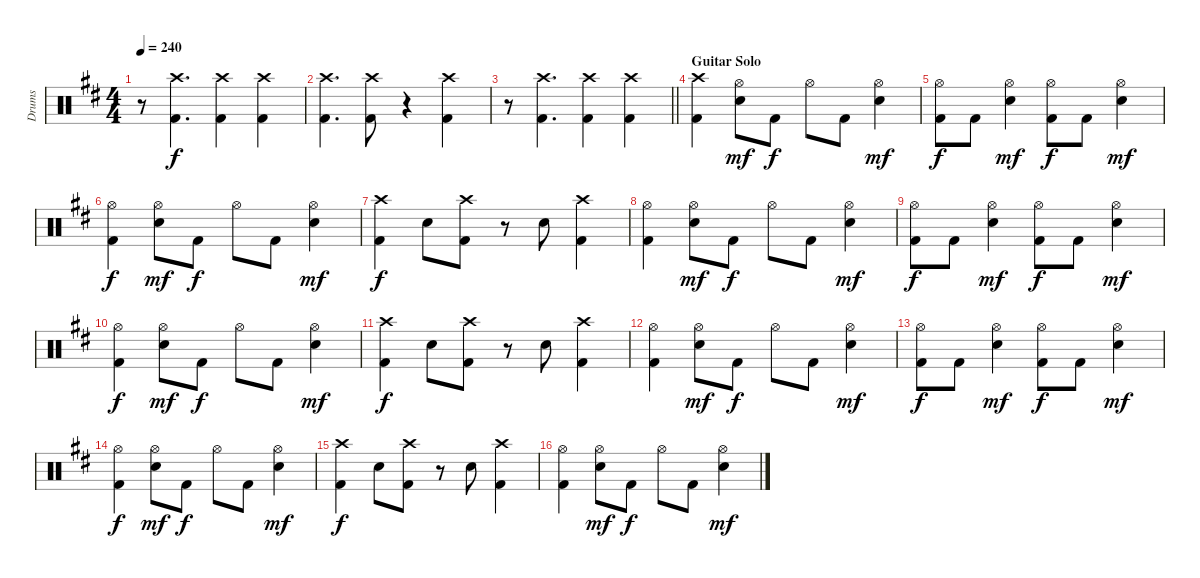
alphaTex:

\track ("Drums" "Drums") {instrument percussion}
\staff {score}
\articulation defaults
\ts (4 4)
\tempo 240
\clef neutral
\ks d
r.8{dy f} ("Crash high (hit)" "Kick (hit) 2").4{d} ("Crash high (hit)" "Kick (hit) 2").4 ("Crash high (hit)" "Kick (hit) 2").4 |
("Crash high (hit)" "Kick (hit) 2").4{d} ("Crash high (hit)" "Kick (hit) 2").8 r.4 ("Crash high (hit)" "Kick (hit) 2").4 |
\barLineRight lightlight
r.8 ("Crash high (hit)" "Kick (hit) 2").4{d} ("Crash high (hit)" "Kick (hit) 2").4 ("Crash high (hit)" "Kick (hit) 2").4 |
\section ("" "Guitar Solo")
("Crash high (hit)" "Kick (hit) 2").4 ("Hi-Hat (open)" "Electric Snare (hit)").8{dy mf} "Kick (hit) 2".8{dy f} "Hi-Hat (open)".8 "Kick (hit) 2".8 ("Hi-Hat (open)" "Electric Snare (hit)").4{dy mf} |
("Hi-Hat (open)" "Kick (hit) 2").8{dy f} "Kick (hit) 2".8 ("Hi-Hat (open)" "Electric Snare (hit)").4{dy mf} ("Hi-Hat (open)" "Kick (hit) 2").8{dy f} "Kick (hit) 2".8 ("Hi-Hat (open)" "Electric Snare (hit)").4{dy mf} |
("Hi-Hat (open)" "Kick (hit) 2").4{dy f} ("Hi-Hat (open)" "Electric Snare (hit)").8{dy mf} "Kick (hit) 2".8{dy f} "Hi-Hat (open)".8 "Kick (hit) 2".8 ("Hi-Hat (open)" "Electric Snare (hit)").4{dy mf} |
("Crash high (hit)" "Kick (hit) 2").4{dy f} "Electric Snare (hit)".8 ("Crash high (hit)" "Kick (hit) 2").8 r.8 "Electric Snare (hit)".8 ("Crash high (hit)" "Kick (hit) 2").4 |
("Hi-Hat (open)" "Kick (hit) 2").4 ("Hi-Hat (open)" "Electric Snare (hit)").8{dy mf} "Kick (hit) 2".8{dy f} "Hi-Hat (open)".8 "Kick (hit) 2".8 ("Hi-Hat (open)" "Electric Snare (hit)").4{dy mf} |
("Hi-Hat (open)" "Kick (hit) 2").8{dy f} "Kick (hit) 2".8 ("Hi-Hat (open)" "Electric Snare (hit)").4{dy mf} ("Hi-Hat (open)" "Kick (hit) 2").8{dy f} "Kick (hit) 2".8 ("Hi-Hat (open)" "Electric Snare (hit)").4{dy mf} |
("Hi-Hat (open)" "Kick (hit) 2").4{dy f} ("Hi-Hat (open)" "Electric Snare (hit)").8{dy mf} "Kick (hit) 2".8{dy f} "Hi-Hat (open)".8 "Kick (hit) 2".8 ("Hi-Hat (open)" "Electric Snare (hit)").4{dy mf} |
("Crash high (hit)" "Kick (hit) 2").4{dy f} "Electric Snare (hit)".8 ("Crash high (hit)" "Kick (hit) 2").8 r.8 "Electric Snare (hit)".8 ("Crash high (hit)" "Kick (hit) 2").4 |
("Hi-Hat (open)" "Kick (hit) 2").4 ("Hi-Hat (open)" "Electric Snare (hit)").8{dy mf} "Kick (hit) 2".8{dy f} "Hi-Hat (open)".8 "Kick (hit) 2".8 ("Hi-Hat (open)" "Electric Snare (hit)").4{dy mf} |
("Hi-Hat (open)" "Kick (hit) 2").8{dy f} "Kick (hit) 2".8 ("Hi-Hat (open)" "Electric Snare (hit)").4{dy mf} ("Hi-Hat (open)" "Kick (hit) 2").8{dy f} "Kick (hit) 2".8 ("Hi-Hat (open)" "Electric Snare (hit)").4{dy mf} |
("Hi-Hat (open)" "Kick (hit) 2").4{dy f} ("Hi-Hat (open)" "Electric Snare (hit)").8{dy mf} "Kick (hit) 2".8{dy f} "Hi-Hat (open)".8 "Kick (hit) 2".8 ("Hi-Hat (open)" "Electric Snare (hit)").4{dy mf} |
("Crash high (hit)" "Kick (hit) 2").4{dy f} "Electric Snare (hit)".8 ("Crash high (hit)" "Kick (hit) 2").8 r.8 "Electric Snare (hit)".8 ("Crash high (hit)" "Kick (hit) 2").4 |
("Hi-Hat (open)" "Kick (hit) 2").4 ("Hi-Hat (open)" "Electric Snare (hit)").8{dy mf} "Kick (hit) 2".8{dy f} "Hi-Hat (open)".8 "Kick (hit) 2".8 ("Hi-Hat (open)" "Electric Snare (hit)").4{dy mf}
